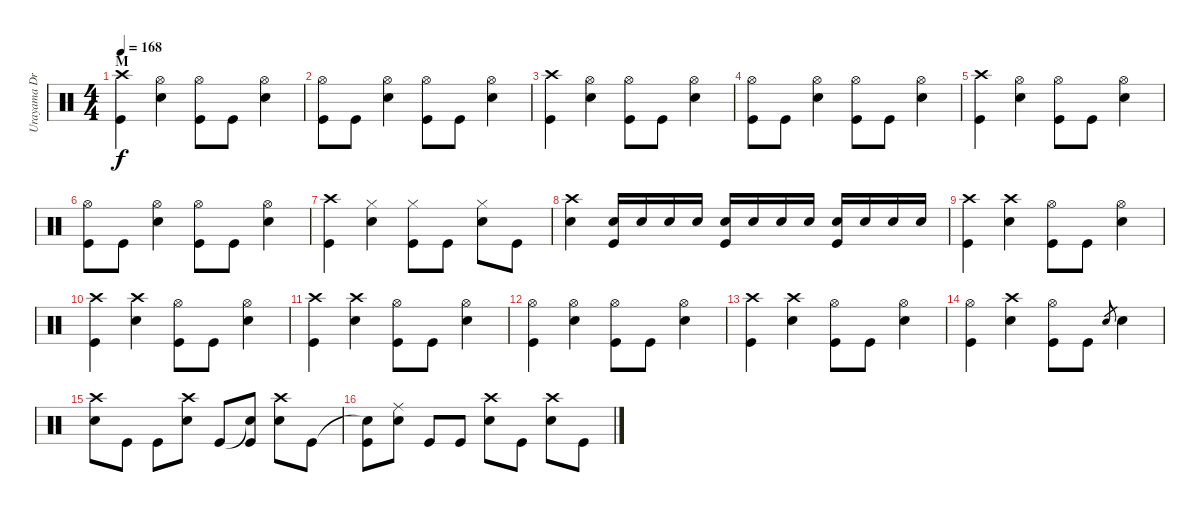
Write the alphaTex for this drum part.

\track ("Urayama Drums" "Urayama Dr") {instrument percussion}
\staff {score}
\articulation defaults
\ts (4 4)
\section ("" "M")
\tempo 168
\clef neutral
\ks c
("Crash high (hit)" "Kick (hit)").4{dy f} ("Hi-Hat (open)" "Electric Snare (hit)").4 ("Hi-Hat (open)" "Kick (hit)").8 "Kick (hit)".8 ("Hi-Hat (open)" "Electric Snare (hit)").4 |
("Hi-Hat (open)" "Kick (hit)").8 "Kick (hit)".8 ("Hi-Hat (open)" "Electric Snare (hit)").4 ("Hi-Hat (open)" "Kick (hit)").8 "Kick (hit)".8 ("Hi-Hat (open)" "Electric Snare (hit)").4 |
("Crash high (hit)" "Kick (hit)").4 ("Hi-Hat (open)" "Electric Snare (hit)").4 ("Hi-Hat (open)" "Kick (hit)").8 "Kick (hit)".8 ("Hi-Hat (open)" "Electric Snare (hit)").4 |
("Hi-Hat (open)" "Kick (hit)").8 "Kick (hit)".8 ("Hi-Hat (open)" "Electric Snare (hit)").4 ("Hi-Hat (open)" "Kick (hit)").8 "Kick (hit)".8 ("Hi-Hat (open)" "Electric Snare (hit)").4 |
("Crash high (hit)" "Kick (hit)").4 ("Hi-Hat (open)" "Electric Snare (hit)").4 ("Hi-Hat (open)" "Kick (hit)").8 "Kick (hit)".8 ("Hi-Hat (open)" "Electric Snare (hit)").4 |
("Hi-Hat (open)" "Kick (hit)").8 "Kick (hit)".8 ("Hi-Hat (open)" "Electric Snare (hit)").4 ("Hi-Hat (open)" "Kick (hit)").8 "Kick (hit)".8 ("Hi-Hat (open)" "Electric Snare (hit)").4 |
("Crash high (hit)" "Kick (hit)").4 ("Hi-Hat (closed)" "Electric Snare (hit)").4 ("Hi-Hat (closed)" "Kick (hit)").8 "Kick (hit)".8 ("Hi-Hat (closed)" "Electric Snare (hit)").8 "Kick (hit)".8 |
("Crash high (hit)" "Electric Snare (hit)").4 ("Electric Snare (hit)" "Kick (hit)").16 "Electric Snare (hit)".16 "Electric Snare (hit)".16 "Electric Snare (hit)".16 ("Electric Snare (hit)" "Kick (hit)").16 "Electric Snare (hit)".16 "Electric Snare (hit)".16 "Electric Snare (hit)".16 ("Electric Snare (hit)" "Kick (hit)").16 "Electric Snare (hit)".16 "Electric Snare (hit)".16 "Electric Snare (hit)".16 |
("Crash high (hit)" "Kick (hit)").4 ("Crash high (hit)" "Electric Snare (hit)").4 ("Hi-Hat (open)" "Kick (hit)").8 "Kick (hit)".8 ("Hi-Hat (open)" "Electric Snare (hit)").4 |
("Crash high (hit)" "Kick (hit)").4 ("Crash high (hit)" "Electric Snare (hit)").4 ("Hi-Hat (open)" "Kick (hit)").8 "Kick (hit)".8 ("Hi-Hat (open)" "Electric Snare (hit)").4 |
("Crash high (hit)" "Kick (hit)").4 ("Crash high (hit)" "Electric Snare (hit)").4 ("Hi-Hat (open)" "Kick (hit)").8 "Kick (hit)".8 ("Hi-Hat (open)" "Electric Snare (hit)").4 |
("Hi-Hat (open)" "Kick (hit)").4 ("Hi-Hat (open)" "Electric Snare (hit)").4 ("Hi-Hat (open)" "Kick (hit)").8 "Kick (hit)".8 ("Hi-Hat (open)" "Electric Snare (hit)").4 |
("Crash high (hit)" "Kick (hit)").4 ("Crash high (hit)" "Electric Snare (hit)").4 ("Hi-Hat (open)" "Kick (hit)").8 "Kick (hit)".8 ("Hi-Hat (open)" "Electric Snare (hit)").4 |
("Hi-Hat (open)" "Kick (hit)").4 ("Crash high (hit)" "Electric Snare (hit)").4 ("Hi-Hat (open)" "Kick (hit)").8 "Kick (hit)".8 "Electric Snare (hit)".8{gr} "Electric Snare (hit)".4 |
("Crash high (hit)" "Electric Snare (hit)").8 "Kick (hit)".8 "Kick (hit)".8 ("Crash high (hit)" "Electric Snare (hit)").8 "Kick (hit)".8 ("Snare (hit)"{t} "Kick (hit)").8 ("Crash high (hit)" "Electric Snare (hit)").8 "Kick (hit)".8 |
("Snare (hit)"{t} "Kick (hit)").8 ("Ride (middle)" "Electric Snare (hit)").8 "Kick (hit)".8 "Kick (hit)".8 ("Crash high (hit)" "Electric Snare (hit)").8 "Kick (hit)".8 ("Crash high (hit)" "Electric Snare (hit)").8 "Kick (hit)".8
